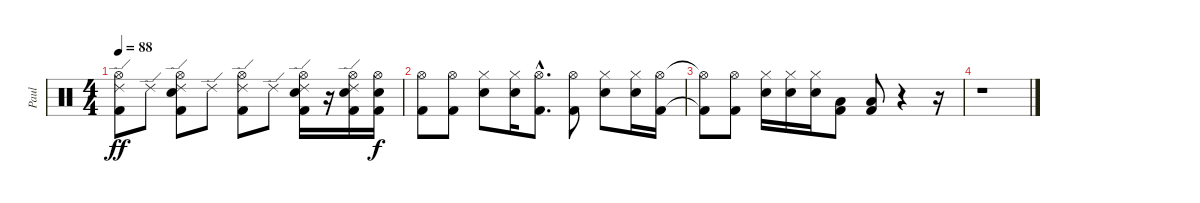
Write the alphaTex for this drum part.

\track ("Paul" "Paul") {instrument percussion}
\staff {score}
\articulation defaults
\ts (4 4)
\tempo 88
\clef neutral
\ks c
("Hi-Hat (open)" "Ride (edge) 2" "Kick (hit) 2").8{dy ff} "Ride (edge) 2".8 ("Snare (hit) 2" "Hi-Hat (open)" "Ride (edge) 2" "Kick (hit) 2").8 "Ride (edge) 2".8 ("Hi-Hat (open)" "Ride (edge) 2" "Kick (hit) 2").8 "Ride (edge) 2".8 ("Snare (hit) 2" "Hi-Hat (open)" "Ride (edge) 2" "Kick (hit) 2").16 r.16 ("Snare (hit) 2" "Hi-Hat (open)" "Ride (edge) 2" "Kick (hit) 2").16 ("Snare (hit) 2" "Hi-Hat (open)" "Kick (hit) 2").16{dy f} |
("Hi-Hat (open)" "Kick (hit) 2").8 ("Hi-Hat (open)" "Kick (hit) 2").8 ("Snare (hit) 2" "Hi-Hat (closed)").8 ("Snare (hit) 2" "Hi-Hat (closed)").16 ("Hi-Hat (open)"{hac} "Kick (hit) 2"{hac}).8{d} ("Hi-Hat (open)" "Kick (hit) 2").8 ("Snare (hit) 2" "Hi-Hat (closed)").8 ("Snare (hit) 2" "Hi-Hat (closed)").16 ("Hi-Hat (open)" "Kick (hit) 2").16 |
("Hi-Hat (open)"{t} "Kick (hit) 2"{t}).8 ("Hi-Hat (open)" "Kick (hit) 2").8 ("Snare (hit) 2" "Hi-Hat (closed)").16 ("Snare (hit) 2" "Hi-Hat (closed)").16 ("Snare (hit) 2" "Hi-Hat (closed)").16 ("Low Floor Tom (hit)" "Kick (hit) 2").8 ("Low Floor Tom (hit)" "Kick (hit) 2").8 r.4 r.16 |
r.1
